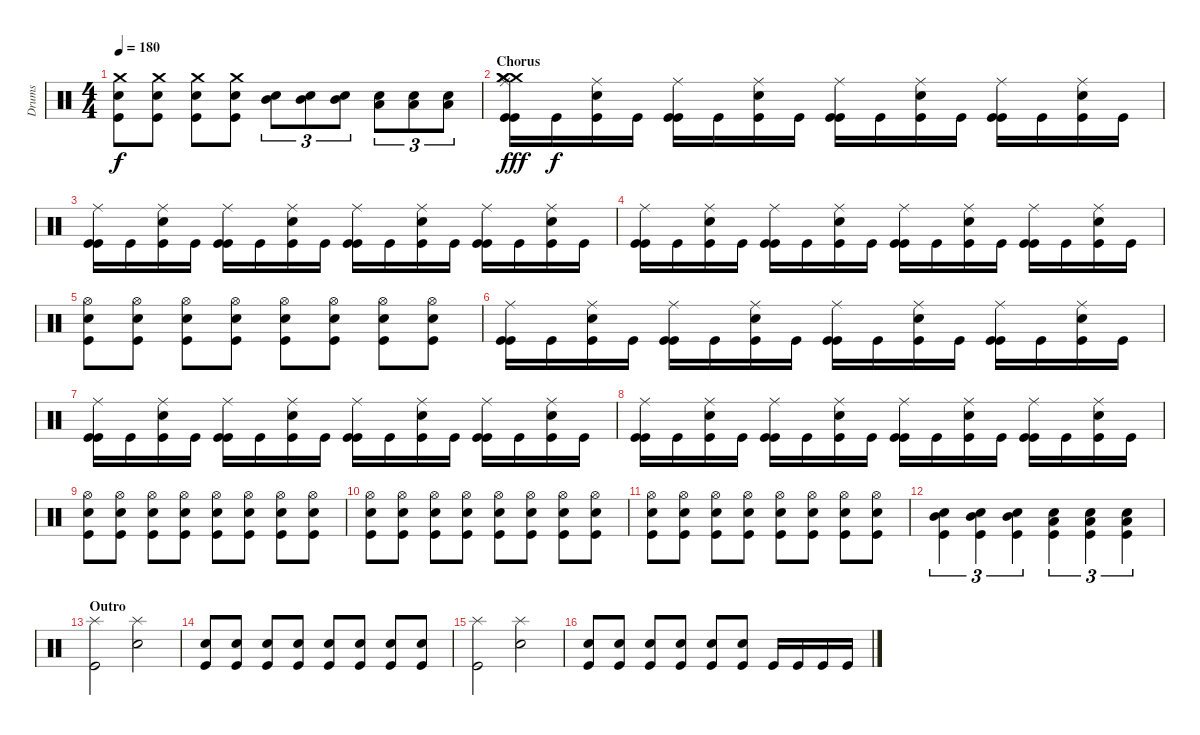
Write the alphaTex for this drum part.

\track ("Drums" "Drums") {instrument percussion}
\staff {score}
\articulation defaults
\ts (4 4)
\tempo 180
\clef neutral
\ks c
("Crash medium (hit)" "Electric Snare (hit)" "Kick (hit)").8{dy f} ("Crash medium (hit)" "Electric Snare (hit)" "Kick (hit)").8 ("Crash medium (hit)" "Electric Snare (hit)" "Kick (hit)").8 ("Crash medium (hit)" "Electric Snare (hit)" "Kick (hit)").8 ("Mid Tom (hit)" "Electric Snare (hit)").8{tu (3 2)} ("Mid Tom (hit)" "Electric Snare (hit)").8{tu (3 2)} ("Mid Tom (hit)" "Electric Snare (hit)").8{tu (3 2)} ("Low Tom (hit)" "Electric Snare (hit)").8{tu (3 2)} ("Low Tom (hit)" "Electric Snare (hit)").8{tu (3 2)} ("Low Tom (hit)" "Electric Snare (hit)").8{tu (3 2)} |
\section ("" "Chorus")
("Ride (middle)" "Crash medium (hit)" "Kick (hit)" "Crash medium (hit)" "Crash medium (hit)" "Kick (hit)").16{dy fff} "Kick (hit)".16{dy f} ("Ride (middle)" "Electric Snare (hit)" "Kick (hit)").16 "Kick (hit)".16 ("Ride (middle)" "Kick (hit)" "Kick (hit)").16 "Kick (hit)".16 ("Ride (middle)" "Electric Snare (hit)" "Kick (hit)").16 "Kick (hit)".16 ("Ride (middle)" "Kick (hit)" "Kick (hit)").16 "Kick (hit)".16 ("Ride (middle)" "Electric Snare (hit)" "Kick (hit)").16 "Kick (hit)".16 ("Ride (middle)" "Kick (hit)" "Kick (hit)").16 "Kick (hit)".16 ("Ride (middle)" "Electric Snare (hit)" "Kick (hit)").16 "Kick (hit)".16 |
("Ride (middle)" "Kick (hit)" "Kick (hit)").16 "Kick (hit)".16 ("Ride (middle)" "Electric Snare (hit)" "Kick (hit)").16 "Kick (hit)".16 ("Ride (middle)" "Kick (hit)" "Kick (hit)").16 "Kick (hit)".16 ("Ride (middle)" "Electric Snare (hit)" "Kick (hit)").16 "Kick (hit)".16 ("Ride (middle)" "Kick (hit)" "Kick (hit)").16 "Kick (hit)".16 ("Ride (middle)" "Electric Snare (hit)" "Kick (hit)").16 "Kick (hit)".16 ("Ride (middle)" "Kick (hit)" "Kick (hit)").16 "Kick (hit)".16 ("Ride (middle)" "Electric Snare (hit)" "Kick (hit)").16 "Kick (hit)".16 |
("Ride (middle)" "Kick (hit)" "Kick (hit)").16 "Kick (hit)".16 ("Ride (middle)" "Electric Snare (hit)" "Kick (hit)").16 "Kick (hit)".16 ("Ride (middle)" "Kick (hit)" "Kick (hit)").16 "Kick (hit)".16 ("Ride (middle)" "Electric Snare (hit)" "Kick (hit)").16 "Kick (hit)".16 ("Ride (middle)" "Kick (hit)" "Kick (hit)").16 "Kick (hit)".16 ("Ride (middle)" "Electric Snare (hit)" "Kick (hit)").16 "Kick (hit)".16 ("Ride (middle)" "Kick (hit)" "Kick (hit)").16 "Kick (hit)".16 ("Ride (middle)" "Electric Snare (hit)" "Kick (hit)").16 "Kick (hit)".16 |
("Hi-Hat (open)" "Electric Snare (hit)" "Kick (hit)").8 ("Hi-Hat (open)" "Electric Snare (hit)" "Kick (hit)").8 ("Hi-Hat (open)" "Electric Snare (hit)" "Kick (hit)").8 ("Hi-Hat (open)" "Electric Snare (hit)" "Kick (hit)").8 ("Hi-Hat (open)" "Electric Snare (hit)" "Kick (hit)").8 ("Hi-Hat (open)" "Electric Snare (hit)" "Kick (hit)").8 ("Hi-Hat (open)" "Electric Snare (hit)" "Kick (hit)").8 ("Hi-Hat (open)" "Electric Snare (hit)" "Kick (hit)").8 |
("Ride (middle)" "Kick (hit)" "Kick (hit)").16 "Kick (hit)".16 ("Ride (middle)" "Electric Snare (hit)" "Kick (hit)").16 "Kick (hit)".16 ("Ride (middle)" "Kick (hit)" "Kick (hit)").16 "Kick (hit)".16 ("Ride (middle)" "Electric Snare (hit)" "Kick (hit)").16 "Kick (hit)".16 ("Ride (middle)" "Kick (hit)" "Kick (hit)").16 "Kick (hit)".16 ("Ride (middle)" "Electric Snare (hit)" "Kick (hit)").16 "Kick (hit)".16 ("Ride (middle)" "Kick (hit)" "Kick (hit)").16 "Kick (hit)".16 ("Ride (middle)" "Electric Snare (hit)" "Kick (hit)").16 "Kick (hit)".16 |
("Ride (middle)" "Kick (hit)" "Kick (hit)").16 "Kick (hit)".16 ("Ride (middle)" "Electric Snare (hit)" "Kick (hit)").16 "Kick (hit)".16 ("Ride (middle)" "Kick (hit)" "Kick (hit)").16 "Kick (hit)".16 ("Ride (middle)" "Electric Snare (hit)" "Kick (hit)").16 "Kick (hit)".16 ("Ride (middle)" "Kick (hit)" "Kick (hit)").16 "Kick (hit)".16 ("Ride (middle)" "Electric Snare (hit)" "Kick (hit)").16 "Kick (hit)".16 ("Ride (middle)" "Kick (hit)" "Kick (hit)").16 "Kick (hit)".16 ("Ride (middle)" "Electric Snare (hit)" "Kick (hit)").16 "Kick (hit)".16 |
("Ride (middle)" "Kick (hit)" "Kick (hit)").16 "Kick (hit)".16 ("Ride (middle)" "Electric Snare (hit)" "Kick (hit)").16 "Kick (hit)".16 ("Ride (middle)" "Kick (hit)" "Kick (hit)").16 "Kick (hit)".16 ("Ride (middle)" "Electric Snare (hit)" "Kick (hit)").16 "Kick (hit)".16 ("Ride (middle)" "Kick (hit)" "Kick (hit)").16 "Kick (hit)".16 ("Ride (middle)" "Electric Snare (hit)" "Kick (hit)").16 "Kick (hit)".16 ("Ride (middle)" "Kick (hit)" "Kick (hit)").16 "Kick (hit)".16 ("Ride (middle)" "Electric Snare (hit)" "Kick (hit)").16 "Kick (hit)".16 |
("Hi-Hat (open)" "Electric Snare (hit)" "Kick (hit)").8 ("Hi-Hat (open)" "Electric Snare (hit)" "Kick (hit)").8 ("Hi-Hat (open)" "Electric Snare (hit)" "Kick (hit)").8 ("Hi-Hat (open)" "Electric Snare (hit)" "Kick (hit)").8 ("Hi-Hat (open)" "Electric Snare (hit)" "Kick (hit)").8 ("Hi-Hat (open)" "Electric Snare (hit)" "Kick (hit)").8 ("Hi-Hat (open)" "Electric Snare (hit)" "Kick (hit)").8 ("Hi-Hat (open)" "Electric Snare (hit)" "Kick (hit)").8 |
("Hi-Hat (open)" "Electric Snare (hit)" "Kick (hit)").8 ("Hi-Hat (open)" "Electric Snare (hit)" "Kick (hit)").8 ("Hi-Hat (open)" "Electric Snare (hit)" "Kick (hit)").8 ("Hi-Hat (open)" "Electric Snare (hit)" "Kick (hit)").8 ("Hi-Hat (open)" "Electric Snare (hit)" "Kick (hit)").8 ("Hi-Hat (open)" "Electric Snare (hit)" "Kick (hit)").8 ("Hi-Hat (open)" "Electric Snare (hit)" "Kick (hit)").8 ("Hi-Hat (open)" "Electric Snare (hit)" "Kick (hit)").8 |
("Hi-Hat (open)" "Electric Snare (hit)" "Kick (hit)").8 ("Hi-Hat (open)" "Electric Snare (hit)" "Kick (hit)").8 ("Hi-Hat (open)" "Electric Snare (hit)" "Kick (hit)").8 ("Hi-Hat (open)" "Electric Snare (hit)" "Kick (hit)").8 ("Hi-Hat (open)" "Electric Snare (hit)" "Kick (hit)").8 ("Hi-Hat (open)" "Electric Snare (hit)" "Kick (hit)").8 ("Hi-Hat (open)" "Electric Snare (hit)" "Kick (hit)").8 ("Hi-Hat (open)" "Electric Snare (hit)" "Kick (hit)").8 |
("Mid Tom (hit)" "Electric Snare (hit)" "Kick (hit)").4{tu (3 2)} ("Mid Tom (hit)" "Electric Snare (hit)" "Kick (hit)").4{tu (3 2)} ("Mid Tom (hit)" "Electric Snare (hit)" "Kick (hit)").4{tu (3 2)} ("Low Tom (hit)" "Electric Snare (hit)" "Kick (hit)").4{tu (3 2)} ("Low Tom (hit)" "Electric Snare (hit)" "Kick (hit)").4{tu (3 2)} ("Low Tom (hit)" "Electric Snare (hit)" "Kick (hit)").4{tu (3 2)} |
\section ("" "Outro")
("Splash (hit)" "Kick (hit)").2 ("Splash (hit)" "Electric Snare (hit)").2 |
("Electric Snare (hit)" "Kick (hit)").8 ("Electric Snare (hit)" "Kick (hit)").8 ("Electric Snare (hit)" "Kick (hit)").8 ("Electric Snare (hit)" "Kick (hit)").8 ("Electric Snare (hit)" "Kick (hit)").8 ("Electric Snare (hit)" "Kick (hit)").8 ("Electric Snare (hit)" "Kick (hit)").8 ("Electric Snare (hit)" "Kick (hit)").8 |
("Splash (hit)" "Kick (hit)").2 ("Splash (hit)" "Electric Snare (hit)").2 |
("Electric Snare (hit)" "Kick (hit)").8 ("Electric Snare (hit)" "Kick (hit)").8 ("Electric Snare (hit)" "Kick (hit)").8 ("Electric Snare (hit)" "Kick (hit)").8 ("Electric Snare (hit)" "Kick (hit)").8 ("Electric Snare (hit)" "Kick (hit)").8 "Kick (hit)".16 "Kick (hit)".16 "Kick (hit)".16 "Kick (hit)".16
